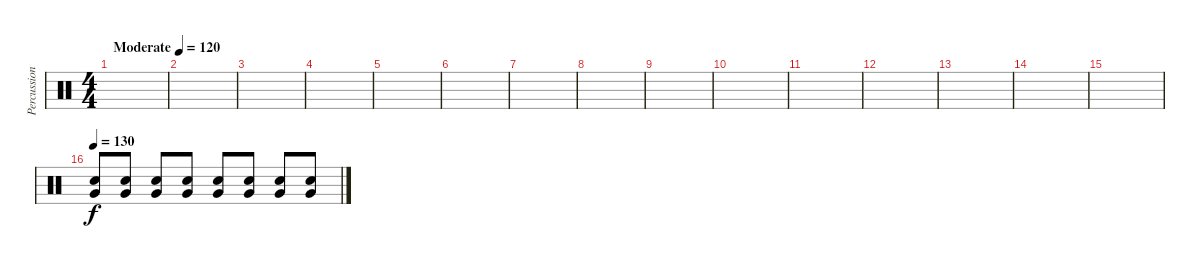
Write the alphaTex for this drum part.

\track ("Percussion" "Percussion") {instrument percussion}
\staff {score}
\articulation defaults
\ts (4 4)
\section ("" "")
\tempo (120 "Moderate")
\clef neutral
\ks c
|
|
|
|
|
|
|
|
|
|
|
|
|
|
|
\tempo 130
("Snare (hit) 2" "Very Low Tom (hit)").8 ("Snare (hit) 2" "Very Low Tom (hit)").8 ("Snare (hit) 2" "Very Low Tom (hit)").8 ("Snare (hit) 2" "Very Low Tom (hit)").8 ("Snare (hit) 2" "Very Low Tom (hit)").8 ("Snare (hit) 2" "Very Low Tom (hit)").8 ("Snare (hit) 2" "Very Low Tom (hit)").8 ("Snare (hit) 2" "Very Low Tom (hit)").8
